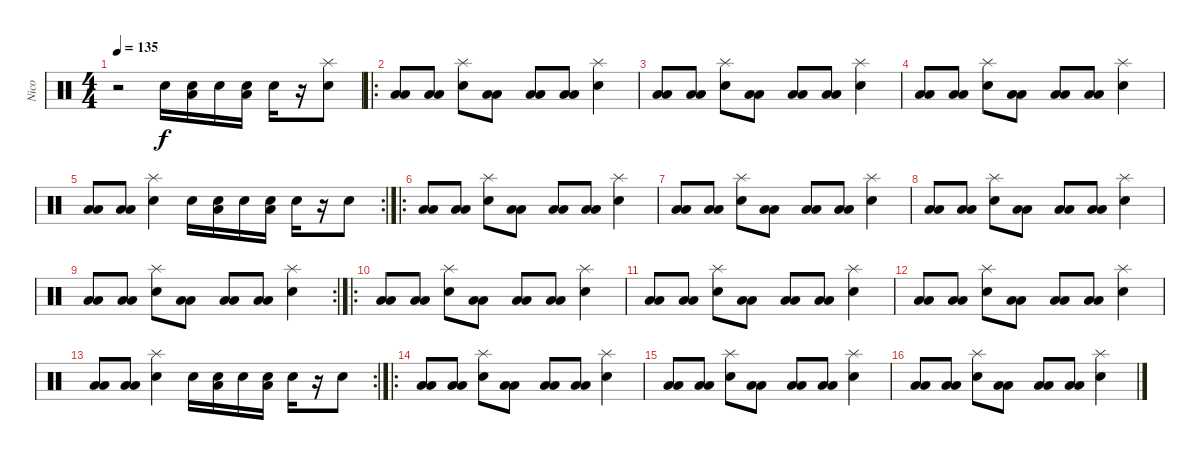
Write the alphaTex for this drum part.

\track ("Nico" "Nico") {instrument percussion}
\staff {score}
\articulation defaults
\ts (4 4)
\tempo 135
\clef neutral
\ks c
r.2{dy f} "Snare (hit) 2".16 ("Snare (hit) 2" "Low Floor Tom (hit)").16 "Snare (hit) 2".16 ("Snare (hit) 2" "Low Floor Tom (hit)").16 "Snare (hit) 2".16 r.16 ("Snare (hit) 2" "Splash (hit)").8 |
\ro
("Low Floor Tom (hit)" "Low Floor Tom (hit)").8 ("Low Floor Tom (hit)" "Low Floor Tom (hit)").8 ("Snare (hit) 2" "Splash (hit)").8 ("Low Floor Tom (hit)" "Low Floor Tom (hit)").8 ("Low Floor Tom (hit)" "Low Floor Tom (hit)").8 ("Low Floor Tom (hit)" "Low Floor Tom (hit)").8 ("Snare (hit) 2" "Splash (hit)").4 |
("Low Floor Tom (hit)" "Low Floor Tom (hit)").8 ("Low Floor Tom (hit)" "Low Floor Tom (hit)").8 ("Snare (hit) 2" "Splash (hit)").8 ("Low Floor Tom (hit)" "Low Floor Tom (hit)").8 ("Low Floor Tom (hit)" "Low Floor Tom (hit)").8 ("Low Floor Tom (hit)" "Low Floor Tom (hit)").8 ("Snare (hit) 2" "Splash (hit)").4 |
("Low Floor Tom (hit)" "Low Floor Tom (hit)").8 ("Low Floor Tom (hit)" "Low Floor Tom (hit)").8 ("Snare (hit) 2" "Splash (hit)").8 ("Low Floor Tom (hit)" "Low Floor Tom (hit)").8 ("Low Floor Tom (hit)" "Low Floor Tom (hit)").8 ("Low Floor Tom (hit)" "Low Floor Tom (hit)").8 ("Snare (hit) 2" "Splash (hit)").4 |
\rc 2
("Low Floor Tom (hit)" "Low Floor Tom (hit)").8 ("Low Floor Tom (hit)" "Low Floor Tom (hit)").8 ("Snare (hit) 2" "Splash (hit)").4 "Snare (hit) 2".16 ("Snare (hit) 2" "Low Floor Tom (hit)").16 "Snare (hit) 2".16 ("Snare (hit) 2" "Low Floor Tom (hit)").16 "Snare (hit) 2".16 r.16 "Snare (hit) 2".8 |
\ro
("Low Floor Tom (hit)" "Low Floor Tom (hit)").8 ("Low Floor Tom (hit)" "Low Floor Tom (hit)").8 ("Snare (hit) 2" "Splash (hit)").8 ("Low Floor Tom (hit)" "Low Floor Tom (hit)").8 ("Low Floor Tom (hit)" "Low Floor Tom (hit)").8 ("Low Floor Tom (hit)" "Low Floor Tom (hit)").8 ("Snare (hit) 2" "Splash (hit)").4 |
("Low Floor Tom (hit)" "Low Floor Tom (hit)").8 ("Low Floor Tom (hit)" "Low Floor Tom (hit)").8 ("Snare (hit) 2" "Splash (hit)").8 ("Low Floor Tom (hit)" "Low Floor Tom (hit)").8 ("Low Floor Tom (hit)" "Low Floor Tom (hit)").8 ("Low Floor Tom (hit)" "Low Floor Tom (hit)").8 ("Snare (hit) 2" "Splash (hit)").4 |
("Low Floor Tom (hit)" "Low Floor Tom (hit)").8 ("Low Floor Tom (hit)" "Low Floor Tom (hit)").8 ("Snare (hit) 2" "Splash (hit)").8 ("Low Floor Tom (hit)" "Low Floor Tom (hit)").8 ("Low Floor Tom (hit)" "Low Floor Tom (hit)").8 ("Low Floor Tom (hit)" "Low Floor Tom (hit)").8 ("Snare (hit) 2" "Splash (hit)").4 |
\rc 2
("Low Floor Tom (hit)" "Low Floor Tom (hit)").8 ("Low Floor Tom (hit)" "Low Floor Tom (hit)").8 ("Snare (hit) 2" "Splash (hit)").8 ("Low Floor Tom (hit)" "Low Floor Tom (hit)").8 ("Low Floor Tom (hit)" "Low Floor Tom (hit)").8 ("Low Floor Tom (hit)" "Low Floor Tom (hit)").8 ("Snare (hit) 2" "Splash (hit)").4 |
\ro
("Low Floor Tom (hit)" "Low Floor Tom (hit)").8 ("Low Floor Tom (hit)" "Low Floor Tom (hit)").8 ("Snare (hit) 2" "Splash (hit)").8 ("Low Floor Tom (hit)" "Low Floor Tom (hit)").8 ("Low Floor Tom (hit)" "Low Floor Tom (hit)").8 ("Low Floor Tom (hit)" "Low Floor Tom (hit)").8 ("Snare (hit) 2" "Splash (hit)").4 |
("Low Floor Tom (hit)" "Low Floor Tom (hit)").8 ("Low Floor Tom (hit)" "Low Floor Tom (hit)").8 ("Snare (hit) 2" "Splash (hit)").8 ("Low Floor Tom (hit)" "Low Floor Tom (hit)").8 ("Low Floor Tom (hit)" "Low Floor Tom (hit)").8 ("Low Floor Tom (hit)" "Low Floor Tom (hit)").8 ("Snare (hit) 2" "Splash (hit)").4 |
("Low Floor Tom (hit)" "Low Floor Tom (hit)").8 ("Low Floor Tom (hit)" "Low Floor Tom (hit)").8 ("Snare (hit) 2" "Splash (hit)").8 ("Low Floor Tom (hit)" "Low Floor Tom (hit)").8 ("Low Floor Tom (hit)" "Low Floor Tom (hit)").8 ("Low Floor Tom (hit)" "Low Floor Tom (hit)").8 ("Snare (hit) 2" "Splash (hit)").4 |
\rc 2
("Low Floor Tom (hit)" "Low Floor Tom (hit)").8 ("Low Floor Tom (hit)" "Low Floor Tom (hit)").8 ("Snare (hit) 2" "Splash (hit)").4 "Snare (hit) 2".16 ("Snare (hit) 2" "Low Floor Tom (hit)").16 "Snare (hit) 2".16 ("Snare (hit) 2" "Low Floor Tom (hit)").16 "Snare (hit) 2".16 r.16 "Snare (hit) 2".8 |
\ro
("Low Floor Tom (hit)" "Low Floor Tom (hit)").8 ("Low Floor Tom (hit)" "Low Floor Tom (hit)").8 ("Snare (hit) 2" "Splash (hit)").8 ("Low Floor Tom (hit)" "Low Floor Tom (hit)").8 ("Low Floor Tom (hit)" "Low Floor Tom (hit)").8 ("Low Floor Tom (hit)" "Low Floor Tom (hit)").8 ("Snare (hit) 2" "Splash (hit)").4 |
("Low Floor Tom (hit)" "Low Floor Tom (hit)").8 ("Low Floor Tom (hit)" "Low Floor Tom (hit)").8 ("Snare (hit) 2" "Splash (hit)").8 ("Low Floor Tom (hit)" "Low Floor Tom (hit)").8 ("Low Floor Tom (hit)" "Low Floor Tom (hit)").8 ("Low Floor Tom (hit)" "Low Floor Tom (hit)").8 ("Snare (hit) 2" "Splash (hit)").4 |
("Low Floor Tom (hit)" "Low Floor Tom (hit)").8 ("Low Floor Tom (hit)" "Low Floor Tom (hit)").8 ("Snare (hit) 2" "Splash (hit)").8 ("Low Floor Tom (hit)" "Low Floor Tom (hit)").8 ("Low Floor Tom (hit)" "Low Floor Tom (hit)").8 ("Low Floor Tom (hit)" "Low Floor Tom (hit)").8 ("Snare (hit) 2" "Splash (hit)").4
